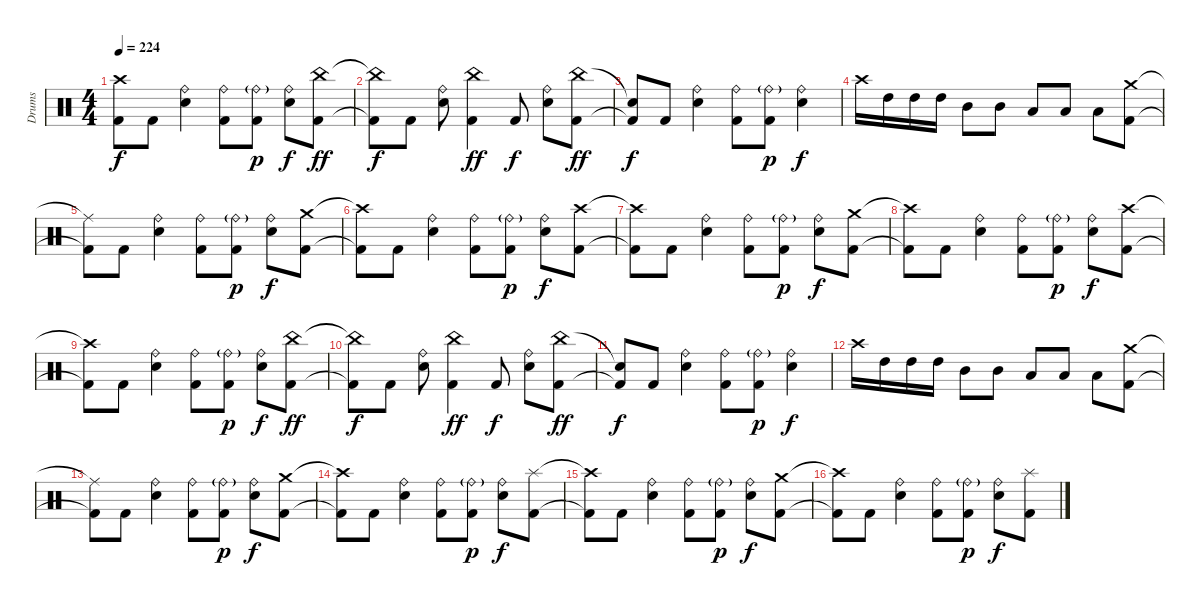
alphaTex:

\track ("Drums" "Drums") {instrument percussion}
\staff {score}
\articulation defaults
\ts (4 4)
\tempo 224
\clef neutral
\ks c
("Crash high (hit)"{t} "Kick (hit) 2"{t}).8{dy f} "Kick (hit) 2".8 ("Ride (bell)" "Electric Snare (hit)").4 ("Ride (bell)" "Kick (hit) 2").8 ("Ride (bell)"{g} "Kick (hit) 2").8{dy p} ("Ride (bell)" "Electric Snare (hit)").8{dy f} ("China (hit)" "Kick (hit) 2").8{dy ff} |
("China (hit)"{t} "Kick (hit) 2"{t}).8{dy f} "Kick (hit) 2".8 ("Ride (bell)" "Electric Snare (hit)").8 ("China (hit)" "Kick (hit) 2").4{dy ff} "Kick (hit) 2".8{dy f} ("Ride (bell)" "Electric Snare (hit)").8 ("China (hit)" "Kick (hit) 2").8{dy ff} |
("Snare (hit)"{t} "Kick (hit) 2"{t}).8{dy f} "Kick (hit) 2".8 ("Ride (bell)" "Electric Snare (hit)").4 ("Ride (bell)" "Kick (hit) 2").8 ("Ride (bell)"{g} "Kick (hit) 2").8{dy p} ("Ride (bell)" "Electric Snare (hit)").4{dy f} |
"Crash high (hit)".16 "High Tom (hit)".16 "High Tom (hit)".16 "High Tom (hit)".16 "Mid Tom (hit)".8 "Mid Tom (hit)".8 "Low Tom (hit)".8 "Low Tom (hit)".8 "Low Tom (hit)".8 ("Crash medium (hit)" "Kick (hit) 2").8 |
("Ride (middle)"{t} "Kick (hit) 2"{t}).8 "Kick (hit) 2".8 ("Ride (bell)" "Electric Snare (hit)").4 ("Ride (bell)" "Kick (hit) 2").8 ("Ride (bell)"{g} "Kick (hit) 2").8{dy p} ("Ride (bell)" "Electric Snare (hit)").8{dy f} ("Crash medium (hit)" "Kick (hit) 2").8 |
("Crash high (hit)"{t} "Kick (hit) 2"{t}).8 "Kick (hit) 2".8 ("Ride (bell)" "Electric Snare (hit)").4 ("Ride (bell)" "Kick (hit) 2").8 ("Ride (bell)"{g} "Kick (hit) 2").8{dy p} ("Ride (bell)" "Electric Snare (hit)").8{dy f} ("Crash high (hit)" "Kick (hit) 2").8 |
("Crash high (hit)"{t} "Kick (hit) 2"{t}).8 "Kick (hit) 2".8 ("Ride (bell)" "Electric Snare (hit)").4 ("Ride (bell)" "Kick (hit) 2").8 ("Ride (bell)"{g} "Kick (hit) 2").8{dy p} ("Ride (bell)" "Electric Snare (hit)").8{dy f} ("Crash medium (hit)" "Kick (hit) 2").8 |
("Crash high (hit)"{t} "Kick (hit) 2"{t}).8 "Kick (hit) 2".8 ("Ride (bell)" "Electric Snare (hit)").4 ("Ride (bell)" "Kick (hit) 2").8 ("Ride (bell)"{g} "Kick (hit) 2").8{dy p} ("Ride (bell)" "Electric Snare (hit)").8{dy f} ("Crash high (hit)" "Kick (hit) 2").8 |
("Crash high (hit)"{t} "Kick (hit) 2"{t}).8 "Kick (hit) 2".8 ("Ride (bell)" "Electric Snare (hit)").4 ("Ride (bell)" "Kick (hit) 2").8 ("Ride (bell)"{g} "Kick (hit) 2").8{dy p} ("Ride (bell)" "Electric Snare (hit)").8{dy f} ("China (hit)" "Kick (hit) 2").8{dy ff} |
("China (hit)"{t} "Kick (hit) 2"{t}).8{dy f} "Kick (hit) 2".8 ("Ride (bell)" "Electric Snare (hit)").8 ("China (hit)" "Kick (hit) 2").4{dy ff} "Kick (hit) 2".8{dy f} ("Ride (bell)" "Electric Snare (hit)").8 ("China (hit)" "Kick (hit) 2").8{dy ff} |
("Snare (hit)"{t} "Kick (hit) 2"{t}).8{dy f} "Kick (hit) 2".8 ("Ride (bell)" "Electric Snare (hit)").4 ("Ride (bell)" "Kick (hit) 2").8 ("Ride (bell)"{g} "Kick (hit) 2").8{dy p} ("Ride (bell)" "Electric Snare (hit)").4{dy f} |
"Crash high (hit)".16 "High Tom (hit)".16 "High Tom (hit)".16 "High Tom (hit)".16 "Mid Tom (hit)".8 "Mid Tom (hit)".8 "Low Tom (hit)".8 "Low Tom (hit)".8 "Low Tom (hit)".8 ("Crash medium (hit)" "Kick (hit) 2").8 |
("Ride (middle)"{t} "Kick (hit) 2"{t}).8 "Kick (hit) 2".8 ("Ride (bell)" "Electric Snare (hit)").4 ("Ride (bell)" "Kick (hit) 2").8 ("Ride (bell)"{g} "Kick (hit) 2").8{dy p} ("Ride (bell)" "Electric Snare (hit)").8{dy f} ("Crash medium (hit)" "Kick (hit) 2").8 |
("Crash high (hit)"{t} "Kick (hit) 2"{t}).8 "Kick (hit) 2".8 ("Ride (bell)" "Electric Snare (hit)").4 ("Ride (bell)" "Kick (hit) 2").8 ("Ride (bell)"{g} "Kick (hit) 2").8{dy p} ("Ride (bell)" "Electric Snare (hit)").8{dy f} ("Splash (hit)" "Kick (hit) 2").8 |
("Crash high (hit)"{t} "Kick (hit) 2"{t}).8 "Kick (hit) 2".8 ("Ride (bell)" "Electric Snare (hit)").4 ("Ride (bell)" "Kick (hit) 2").8 ("Ride (bell)"{g} "Kick (hit) 2").8{dy p} ("Ride (bell)" "Electric Snare (hit)").8{dy f} ("Crash medium (hit)" "Kick (hit) 2").8 |
("Crash high (hit)"{t} "Kick (hit) 2"{t}).8 "Kick (hit) 2".8 ("Ride (bell)" "Electric Snare (hit)").4 ("Ride (bell)" "Kick (hit) 2").8 ("Ride (bell)"{g} "Kick (hit) 2").8{dy p} ("Ride (bell)" "Electric Snare (hit)").8{dy f} ("Splash (hit)" "Kick (hit) 2").8
